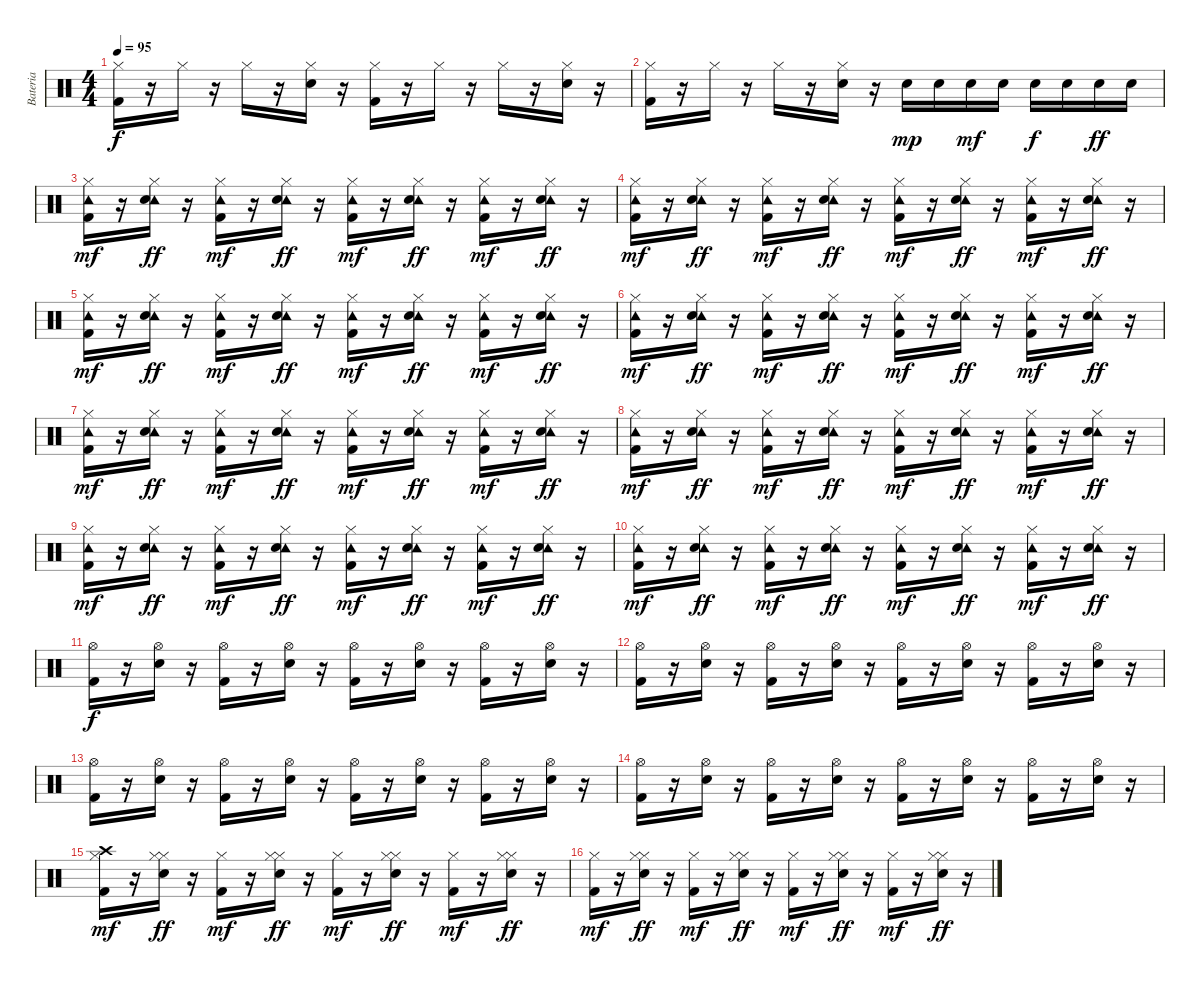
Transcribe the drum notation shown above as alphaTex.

\track ("Bateria" "Bateria") {instrument percussion}
\staff {score}
\articulation defaults
\ts (4 4)
\tempo 95
\clef neutral
\ks c
("Hi-Hat (closed)" "Kick (hit) 2").16{dy f} r.16 "Hi-Hat (closed)".16 r.16 "Hi-Hat (closed)".16 r.16 ("Hi-Hat (closed)" "Snare (hit) 2").16 r.16 ("Hi-Hat (closed)" "Kick (hit) 2").16 r.16 "Hi-Hat (closed)".16 r.16 "Hi-Hat (closed)".16 r.16 ("Hi-Hat (closed)" "Snare (hit) 2").16 r.16 |
("Hi-Hat (closed)" "Kick (hit) 2").16 r.16 "Hi-Hat (closed)".16 r.16 "Hi-Hat (closed)".16 r.16 ("Hi-Hat (closed)" "Snare (hit) 2").16 r.16 "Snare (hit) 2".16{dy mp} "Snare (hit) 2".16 "Snare (hit) 2".16{dy mf} "Snare (hit) 2".16 "Snare (hit) 2".16{dy f} "Snare (hit) 2".16 "Snare (hit) 2".16{dy ff} "Snare (hit) 2".16 |
("Tambourine (hit)" "Hi-Hat (closed)" "Kick (hit) 2").16{dy mf} r.16 ("Tambourine (hit)" "Hi-Hat (closed)" "Snare (hit) 2").16{dy ff} r.16 ("Tambourine (hit)" "Hi-Hat (closed)" "Kick (hit) 2").16{dy mf} r.16 ("Tambourine (hit)" "Hi-Hat (closed)" "Snare (hit) 2").16{dy ff} r.16 ("Tambourine (hit)" "Hi-Hat (closed)" "Kick (hit) 2").16{dy mf} r.16 ("Tambourine (hit)" "Hi-Hat (closed)" "Snare (hit) 2").16{dy ff} r.16 ("Tambourine (hit)" "Hi-Hat (closed)" "Kick (hit) 2").16{dy mf} r.16 ("Tambourine (hit)" "Hi-Hat (closed)" "Snare (hit) 2").16{dy ff} r.16 |
("Tambourine (hit)" "Hi-Hat (closed)" "Kick (hit) 2").16{dy mf} r.16 ("Tambourine (hit)" "Hi-Hat (closed)" "Snare (hit) 2").16{dy ff} r.16 ("Tambourine (hit)" "Hi-Hat (closed)" "Kick (hit) 2").16{dy mf} r.16 ("Tambourine (hit)" "Hi-Hat (closed)" "Snare (hit) 2").16{dy ff} r.16 ("Tambourine (hit)" "Hi-Hat (closed)" "Kick (hit) 2").16{dy mf} r.16 ("Tambourine (hit)" "Hi-Hat (closed)" "Snare (hit) 2").16{dy ff} r.16 ("Tambourine (hit)" "Hi-Hat (closed)" "Kick (hit) 2").16{dy mf} r.16 ("Tambourine (hit)" "Hi-Hat (closed)" "Snare (hit) 2").16{dy ff} r.16 |
("Tambourine (hit)" "Hi-Hat (closed)" "Kick (hit) 2").16{dy mf} r.16 ("Tambourine (hit)" "Hi-Hat (closed)" "Snare (hit) 2").16{dy ff} r.16 ("Tambourine (hit)" "Hi-Hat (closed)" "Kick (hit) 2").16{dy mf} r.16 ("Tambourine (hit)" "Hi-Hat (closed)" "Snare (hit) 2").16{dy ff} r.16 ("Tambourine (hit)" "Hi-Hat (closed)" "Kick (hit) 2").16{dy mf} r.16 ("Tambourine (hit)" "Hi-Hat (closed)" "Snare (hit) 2").16{dy ff} r.16 ("Tambourine (hit)" "Hi-Hat (closed)" "Kick (hit) 2").16{dy mf} r.16 ("Tambourine (hit)" "Hi-Hat (closed)" "Snare (hit) 2").16{dy ff} r.16 |
("Tambourine (hit)" "Hi-Hat (closed)" "Kick (hit) 2").16{dy mf} r.16 ("Tambourine (hit)" "Hi-Hat (closed)" "Snare (hit) 2").16{dy ff} r.16 ("Tambourine (hit)" "Hi-Hat (closed)" "Kick (hit) 2").16{dy mf} r.16 ("Tambourine (hit)" "Hi-Hat (closed)" "Snare (hit) 2").16{dy ff} r.16 ("Tambourine (hit)" "Hi-Hat (closed)" "Kick (hit) 2").16{dy mf} r.16 ("Tambourine (hit)" "Hi-Hat (closed)" "Snare (hit) 2").16{dy ff} r.16 ("Tambourine (hit)" "Hi-Hat (closed)" "Kick (hit) 2").16{dy mf} r.16 ("Tambourine (hit)" "Hi-Hat (closed)" "Snare (hit) 2").16{dy ff} r.16 |
("Tambourine (hit)" "Hi-Hat (closed)" "Kick (hit) 2").16{dy mf} r.16 ("Tambourine (hit)" "Hi-Hat (closed)" "Snare (hit) 2").16{dy ff} r.16 ("Tambourine (hit)" "Hi-Hat (closed)" "Kick (hit) 2").16{dy mf} r.16 ("Tambourine (hit)" "Hi-Hat (closed)" "Snare (hit) 2").16{dy ff} r.16 ("Tambourine (hit)" "Hi-Hat (closed)" "Kick (hit) 2").16{dy mf} r.16 ("Tambourine (hit)" "Hi-Hat (closed)" "Snare (hit) 2").16{dy ff} r.16 ("Tambourine (hit)" "Hi-Hat (closed)" "Kick (hit) 2").16{dy mf} r.16 ("Tambourine (hit)" "Hi-Hat (closed)" "Snare (hit) 2").16{dy ff} r.16 |
("Tambourine (hit)" "Hi-Hat (closed)" "Kick (hit) 2").16{dy mf} r.16 ("Tambourine (hit)" "Hi-Hat (closed)" "Snare (hit) 2").16{dy ff} r.16 ("Tambourine (hit)" "Hi-Hat (closed)" "Kick (hit) 2").16{dy mf} r.16 ("Tambourine (hit)" "Hi-Hat (closed)" "Snare (hit) 2").16{dy ff} r.16 ("Tambourine (hit)" "Hi-Hat (closed)" "Kick (hit) 2").16{dy mf} r.16 ("Tambourine (hit)" "Hi-Hat (closed)" "Snare (hit) 2").16{dy ff} r.16 ("Tambourine (hit)" "Hi-Hat (closed)" "Kick (hit) 2").16{dy mf} r.16 ("Tambourine (hit)" "Hi-Hat (closed)" "Snare (hit) 2").16{dy ff} r.16 |
("Tambourine (hit)" "Hi-Hat (closed)" "Kick (hit) 2").16{dy mf} r.16 ("Tambourine (hit)" "Hi-Hat (closed)" "Snare (hit) 2").16{dy ff} r.16 ("Tambourine (hit)" "Hi-Hat (closed)" "Kick (hit) 2").16{dy mf} r.16 ("Tambourine (hit)" "Hi-Hat (closed)" "Snare (hit) 2").16{dy ff} r.16 ("Tambourine (hit)" "Hi-Hat (closed)" "Kick (hit) 2").16{dy mf} r.16 ("Tambourine (hit)" "Hi-Hat (closed)" "Snare (hit) 2").16{dy ff} r.16 ("Tambourine (hit)" "Hi-Hat (closed)" "Kick (hit) 2").16{dy mf} r.16 ("Tambourine (hit)" "Hi-Hat (closed)" "Snare (hit) 2").16{dy ff} r.16 |
("Tambourine (hit)" "Hi-Hat (closed)" "Kick (hit) 2").16{dy mf} r.16 ("Tambourine (hit)" "Hi-Hat (closed)" "Snare (hit) 2").16{dy ff} r.16 ("Tambourine (hit)" "Hi-Hat (closed)" "Kick (hit) 2").16{dy mf} r.16 ("Tambourine (hit)" "Hi-Hat (closed)" "Snare (hit) 2").16{dy ff} r.16 ("Tambourine (hit)" "Hi-Hat (closed)" "Kick (hit) 2").16{dy mf} r.16 ("Tambourine (hit)" "Hi-Hat (closed)" "Snare (hit) 2").16{dy ff} r.16 ("Tambourine (hit)" "Hi-Hat (closed)" "Kick (hit) 2").16{dy mf} r.16 ("Tambourine (hit)" "Hi-Hat (closed)" "Snare (hit) 2").16{dy ff} r.16 |
("Hi-Hat (open)" "Kick (hit) 2").16{dy f} r.16 ("Hi-Hat (open)" "Snare (hit) 2").16 r.16 ("Hi-Hat (open)" "Kick (hit) 2").16 r.16 ("Hi-Hat (open)" "Snare (hit) 2").16 r.16 ("Hi-Hat (open)" "Kick (hit) 2").16 r.16 ("Hi-Hat (open)" "Snare (hit) 2").16 r.16 ("Hi-Hat (open)" "Kick (hit) 2").16 r.16 ("Hi-Hat (open)" "Snare (hit) 2").16 r.16 |
("Hi-Hat (open)" "Kick (hit) 2").16 r.16 ("Hi-Hat (open)" "Snare (hit) 2").16 r.16 ("Hi-Hat (open)" "Kick (hit) 2").16 r.16 ("Hi-Hat (open)" "Snare (hit) 2").16 r.16 ("Hi-Hat (open)" "Kick (hit) 2").16 r.16 ("Hi-Hat (open)" "Snare (hit) 2").16 r.16 ("Hi-Hat (open)" "Kick (hit) 2").16 r.16 ("Hi-Hat (open)" "Snare (hit) 2").16 r.16 |
("Hi-Hat (open)" "Kick (hit) 2").16 r.16 ("Hi-Hat (open)" "Snare (hit) 2").16 r.16 ("Hi-Hat (open)" "Kick (hit) 2").16 r.16 ("Hi-Hat (open)" "Snare (hit) 2").16 r.16 ("Hi-Hat (open)" "Kick (hit) 2").16 r.16 ("Hi-Hat (open)" "Snare (hit) 2").16 r.16 ("Hi-Hat (open)" "Kick (hit) 2").16 r.16 ("Hi-Hat (open)" "Snare (hit) 2").16 r.16 |
("Hi-Hat (open)" "Kick (hit) 2").16 r.16 ("Hi-Hat (open)" "Snare (hit) 2").16 r.16 ("Hi-Hat (open)" "Kick (hit) 2").16 r.16 ("Hi-Hat (open)" "Snare (hit) 2").16 r.16 ("Hi-Hat (open)" "Kick (hit) 2").16 r.16 ("Hi-Hat (open)" "Snare (hit) 2").16 r.16 ("Hi-Hat (open)" "Kick (hit) 2").16 r.16 ("Hi-Hat (open)" "Snare (hit) 2").16 r.16 |
("Crash high (hit)" "Hi-Hat (closed)" "Kick (hit) 2").16{dy mf} r.16 ("Hi-Hat (closed)" "Hi-Hat (closed)" "Snare (hit) 2").16{dy ff} r.16 ("Hi-Hat (closed)" "Kick (hit) 2").16{dy mf} r.16 ("Hi-Hat (closed)" "Hi-Hat (closed)" "Snare (hit) 2").16{dy ff} r.16 ("Hi-Hat (closed)" "Kick (hit) 2").16{dy mf} r.16 ("Hi-Hat (closed)" "Hi-Hat (closed)" "Snare (hit) 2").16{dy ff} r.16 ("Hi-Hat (closed)" "Kick (hit) 2").16{dy mf} r.16 ("Hi-Hat (closed)" "Hi-Hat (closed)" "Snare (hit) 2").16{dy ff} r.16 |
("Hi-Hat (closed)" "Kick (hit) 2").16{dy mf} r.16 ("Hi-Hat (closed)" "Hi-Hat (closed)" "Snare (hit) 2").16{dy ff} r.16 ("Hi-Hat (closed)" "Kick (hit) 2").16{dy mf} r.16 ("Hi-Hat (closed)" "Hi-Hat (closed)" "Snare (hit) 2").16{dy ff} r.16 ("Hi-Hat (closed)" "Kick (hit) 2").16{dy mf} r.16 ("Hi-Hat (closed)" "Hi-Hat (closed)" "Snare (hit) 2").16{dy ff} r.16 ("Hi-Hat (closed)" "Kick (hit) 2").16{dy mf} r.16 ("Hi-Hat (closed)" "Hi-Hat (closed)" "Snare (hit) 2").16{dy ff} r.16
